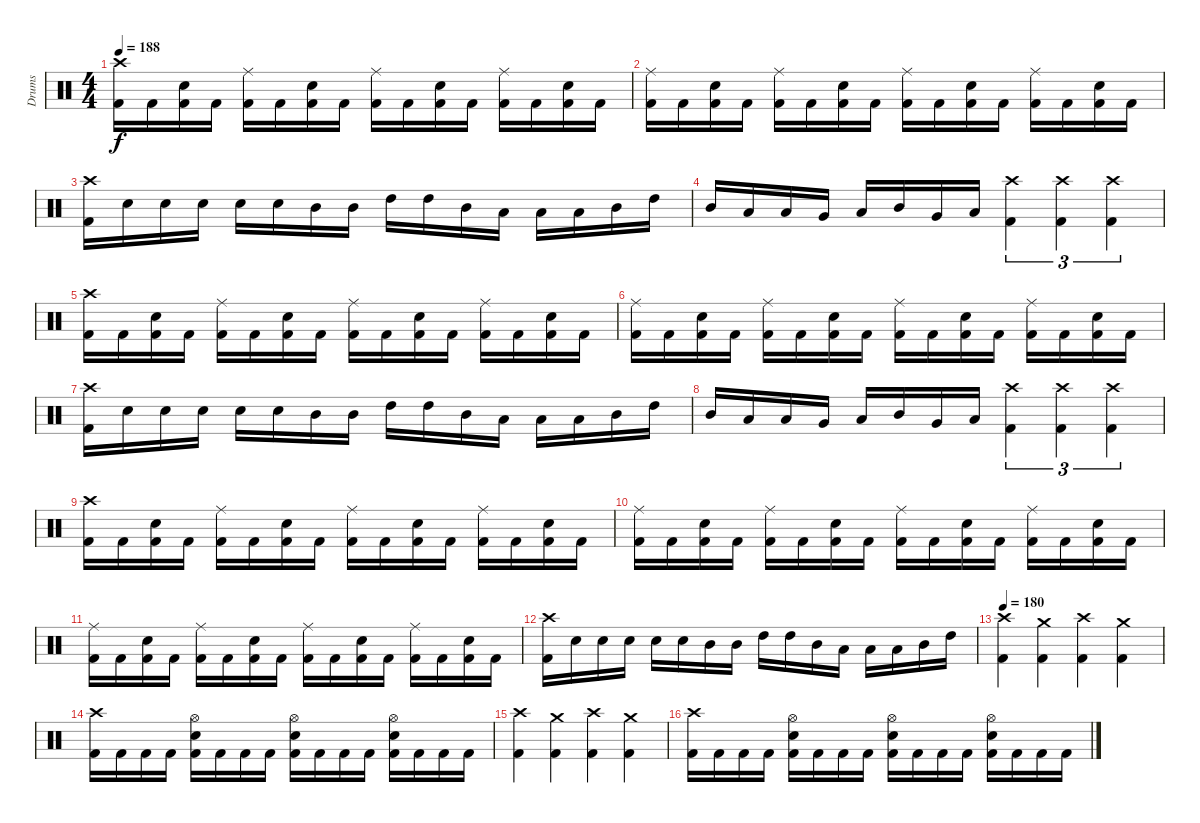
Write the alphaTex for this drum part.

\track ("Drums" "Drums") {instrument percussion}
\staff {score}
\articulation defaults
\ts (4 4)
\tempo 188
\clef neutral
\ks c
("Crash high (hit)" "Kick (hit) 2").16{dy f} "Kick (hit) 2".16 ("Electric Snare (hit)" "Kick (hit) 2").16 "Kick (hit) 2".16 ("Ride (middle)" "Kick (hit) 2").16 "Kick (hit) 2".16 ("Electric Snare (hit)" "Kick (hit) 2").16 "Kick (hit) 2".16 ("Ride (middle)" "Kick (hit) 2").16 "Kick (hit) 2".16 ("Electric Snare (hit)" "Kick (hit) 2").16 "Kick (hit) 2".16 ("Ride (middle)" "Kick (hit) 2").16 "Kick (hit) 2".16 ("Electric Snare (hit)" "Kick (hit) 2").16 "Kick (hit) 2".16 |
("Ride (middle)" "Kick (hit) 2").16 "Kick (hit) 2".16 ("Electric Snare (hit)" "Kick (hit) 2").16 "Kick (hit) 2".16 ("Ride (middle)" "Kick (hit) 2").16 "Kick (hit) 2".16 ("Electric Snare (hit)" "Kick (hit) 2").16 "Kick (hit) 2".16 ("Ride (middle)" "Kick (hit) 2").16 "Kick (hit) 2".16 ("Electric Snare (hit)" "Kick (hit) 2").16 "Kick (hit) 2".16 ("Ride (middle)" "Kick (hit) 2").16 "Kick (hit) 2".16 ("Electric Snare (hit)" "Kick (hit) 2").16 "Kick (hit) 2".16 |
("Crash high (hit)" "Kick (hit) 2").16 "Electric Snare (hit)".16 "Electric Snare (hit)".16 "Electric Snare (hit)".16 "Electric Snare (hit)".16 "Electric Snare (hit)".16 "Mid Tom (hit)".16 "Mid Tom (hit)".16 "High Tom (hit)".16 "High Tom (hit)".16 "Mid Tom (hit)".16 "Low Tom (hit)".16 "Low Tom (hit)".16 "Low Tom (hit)".16 "Mid Tom (hit)".16 "High Tom (hit)".16 |
"Mid Tom (hit)".16 "Low Tom (hit)".16 "Low Tom (hit)".16 "Very Low Tom (hit)".16 "Low Tom (hit)".16 "Mid Tom (hit)".16 "Very Low Tom (hit)".16 "Low Floor Tom (hit)".16 ("Crash high (hit)" "Kick (hit) 2").4{tu (3 2)} ("Crash high (hit)" "Kick (hit) 2").4{tu (3 2)} ("Crash high (hit)" "Kick (hit) 2").4{tu (3 2)} |
("Crash high (hit)" "Kick (hit) 2").16 "Kick (hit) 2".16 ("Electric Snare (hit)" "Kick (hit) 2").16 "Kick (hit) 2".16 ("Ride (middle)" "Kick (hit) 2").16 "Kick (hit) 2".16 ("Electric Snare (hit)" "Kick (hit) 2").16 "Kick (hit) 2".16 ("Ride (middle)" "Kick (hit) 2").16 "Kick (hit) 2".16 ("Electric Snare (hit)" "Kick (hit) 2").16 "Kick (hit) 2".16 ("Ride (middle)" "Kick (hit) 2").16 "Kick (hit) 2".16 ("Electric Snare (hit)" "Kick (hit) 2").16 "Kick (hit) 2".16 |
("Ride (middle)" "Kick (hit) 2").16 "Kick (hit) 2".16 ("Electric Snare (hit)" "Kick (hit) 2").16 "Kick (hit) 2".16 ("Ride (middle)" "Kick (hit) 2").16 "Kick (hit) 2".16 ("Electric Snare (hit)" "Kick (hit) 2").16 "Kick (hit) 2".16 ("Ride (middle)" "Kick (hit) 2").16 "Kick (hit) 2".16 ("Electric Snare (hit)" "Kick (hit) 2").16 "Kick (hit) 2".16 ("Ride (middle)" "Kick (hit) 2").16 "Kick (hit) 2".16 ("Electric Snare (hit)" "Kick (hit) 2").16 "Kick (hit) 2".16 |
("Crash high (hit)" "Kick (hit) 2").16 "Electric Snare (hit)".16 "Electric Snare (hit)".16 "Electric Snare (hit)".16 "Electric Snare (hit)".16 "Electric Snare (hit)".16 "Mid Tom (hit)".16 "Mid Tom (hit)".16 "High Tom (hit)".16 "High Tom (hit)".16 "Mid Tom (hit)".16 "Low Tom (hit)".16 "Low Tom (hit)".16 "Low Tom (hit)".16 "Mid Tom (hit)".16 "High Tom (hit)".16 |
"Mid Tom (hit)".16 "Low Tom (hit)".16 "Low Tom (hit)".16 "Very Low Tom (hit)".16 "Low Tom (hit)".16 "Mid Tom (hit)".16 "Very Low Tom (hit)".16 "Low Floor Tom (hit)".16 ("Crash high (hit)" "Kick (hit) 2").4{tu (3 2)} ("Crash high (hit)" "Kick (hit) 2").4{tu (3 2)} ("Crash high (hit)" "Kick (hit) 2").4{tu (3 2)} |
("Crash high (hit)" "Kick (hit) 2").16 "Kick (hit) 2".16 ("Electric Snare (hit)" "Kick (hit) 2").16 "Kick (hit) 2".16 ("Ride (middle)" "Kick (hit) 2").16 "Kick (hit) 2".16 ("Electric Snare (hit)" "Kick (hit) 2").16 "Kick (hit) 2".16 ("Ride (middle)" "Kick (hit) 2").16 "Kick (hit) 2".16 ("Electric Snare (hit)" "Kick (hit) 2").16 "Kick (hit) 2".16 ("Ride (middle)" "Kick (hit) 2").16 "Kick (hit) 2".16 ("Electric Snare (hit)" "Kick (hit) 2").16 "Kick (hit) 2".16 |
("Ride (middle)" "Kick (hit) 2").16 "Kick (hit) 2".16 ("Electric Snare (hit)" "Kick (hit) 2").16 "Kick (hit) 2".16 ("Ride (middle)" "Kick (hit) 2").16 "Kick (hit) 2".16 ("Electric Snare (hit)" "Kick (hit) 2").16 "Kick (hit) 2".16 ("Ride (middle)" "Kick (hit) 2").16 "Kick (hit) 2".16 ("Electric Snare (hit)" "Kick (hit) 2").16 "Kick (hit) 2".16 ("Ride (middle)" "Kick (hit) 2").16 "Kick (hit) 2".16 ("Electric Snare (hit)" "Kick (hit) 2").16 "Kick (hit) 2".16 |
("Ride (middle)" "Kick (hit) 2").16 "Kick (hit) 2".16 ("Electric Snare (hit)" "Kick (hit) 2").16 "Kick (hit) 2".16 ("Ride (middle)" "Kick (hit) 2").16 "Kick (hit) 2".16 ("Electric Snare (hit)" "Kick (hit) 2").16 "Kick (hit) 2".16 ("Ride (middle)" "Kick (hit) 2").16 "Kick (hit) 2".16 ("Electric Snare (hit)" "Kick (hit) 2").16 "Kick (hit) 2".16 ("Ride (middle)" "Kick (hit) 2").16 "Kick (hit) 2".16 ("Electric Snare (hit)" "Kick (hit) 2").16 "Kick (hit) 2".16 |
("Crash high (hit)" "Kick (hit) 2").16 "Electric Snare (hit)".16 "Electric Snare (hit)".16 "Electric Snare (hit)".16 "Electric Snare (hit)".16 "Electric Snare (hit)".16 "Mid Tom (hit)".16 "Mid Tom (hit)".16 "High Tom (hit)".16 "High Tom (hit)".16 "Mid Tom (hit)".16 "Low Tom (hit)".16 "Low Tom (hit)".16 "Low Tom (hit)".16 "Mid Tom (hit)".16 "High Tom (hit)".16 |
\tempo 180
("Crash high (hit)" "Kick (hit) 2").4 ("Crash medium (hit)" "Kick (hit) 2").4 ("Crash high (hit)" "Kick (hit) 2").4 ("Crash medium (hit)" "Kick (hit) 2").4 |
("Crash high (hit)" "Kick (hit) 2").16 "Kick (hit) 2".16 "Kick (hit) 2".16 "Kick (hit) 2".16 ("Hi-Hat (open)" "Electric Snare (hit)" "Kick (hit) 2").16 "Kick (hit) 2".16 "Kick (hit) 2".16 "Kick (hit) 2".16 ("Hi-Hat (open)" "Electric Snare (hit)" "Kick (hit) 2").16 "Kick (hit) 2".16 "Kick (hit) 2".16 "Kick (hit) 2".16 ("Hi-Hat (open)" "Electric Snare (hit)" "Kick (hit) 2").16 "Kick (hit) 2".16 "Kick (hit) 2".16 "Kick (hit) 2".16 |
("Crash high (hit)" "Kick (hit) 2").4 ("Crash medium (hit)" "Kick (hit) 2").4 ("Crash high (hit)" "Kick (hit) 2").4 ("Crash medium (hit)" "Kick (hit) 2").4 |
("Crash high (hit)" "Kick (hit) 2").16 "Kick (hit) 2".16 "Kick (hit) 2".16 "Kick (hit) 2".16 ("Hi-Hat (open)" "Electric Snare (hit)" "Kick (hit) 2").16 "Kick (hit) 2".16 "Kick (hit) 2".16 "Kick (hit) 2".16 ("Hi-Hat (open)" "Electric Snare (hit)" "Kick (hit) 2").16 "Kick (hit) 2".16 "Kick (hit) 2".16 "Kick (hit) 2".16 ("Hi-Hat (open)" "Electric Snare (hit)" "Kick (hit) 2").16 "Kick (hit) 2".16 "Kick (hit) 2".16 "Kick (hit) 2".16
